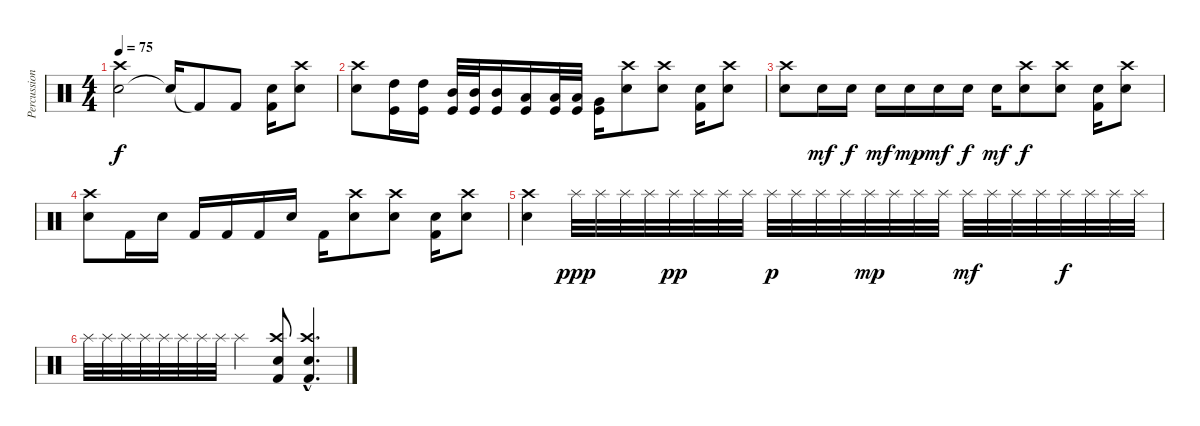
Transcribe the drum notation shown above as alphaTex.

\track ("Percussion" "Percussion") {instrument percussion}
\staff {score}
\articulation defaults
\ts (4 4)
\tempo 75
\clef neutral
\ks c
("Snare (hit) 2" "Crash high (hit)").2{dy f} "Snare (hit)"{t}.16 "Kick (hit) 2"{t}.8 "Kick (hit) 2".8 ("Snare (hit) 2" "Kick (hit) 2").16 ("Crash high (hit)" "Snare (hit) 2").8 |
("Crash high (hit)" "Snare (hit) 2").8 ("High Tom (hit)" "Kick (hit)").16 ("High Tom (hit)" "Kick (hit)").16 ("Mid Tom (hit)" "Kick (hit)").32 ("Mid Tom (hit)" "Kick (hit)").32 ("Mid Tom (hit)" "Kick (hit)").16 ("Low Tom (hit)" "Kick (hit)").16 ("Low Tom (hit)" "Kick (hit)").32 ("Low Tom (hit)" "Kick (hit)").32 ("Very Low Tom (hit)" "Kick (hit)").16 ("Crash high (hit)" "Snare (hit) 2").8 ("Crash high (hit)" "Snare (hit) 2").8 ("Kick (hit) 2" "Snare (hit) 2").16 ("Crash high (hit)" "Snare (hit) 2").8 |
("Crash high (hit)" "Snare (hit) 2").8 "Snare (hit) 2".16{dy mf} "Snare (hit) 2".16{dy f} "Snare (hit) 2".16{dy mf} "Snare (hit) 2".16{dy mp} "Snare (hit) 2".16{dy mf} "Snare (hit) 2".16{dy f} "Snare (hit) 2".16{dy mf} ("Crash high (hit)" "Snare (hit) 2").8{dy f} ("Crash high (hit)" "Snare (hit) 2").8 ("Kick (hit) 2" "Snare (hit) 2").16 ("Crash high (hit)" "Snare (hit) 2").8 |
("Crash high (hit)" "Snare (hit) 2").8 "Kick (hit) 2".16 "Snare (hit) 2".16 "Kick (hit) 2".16 "Kick (hit) 2".16 "Kick (hit) 2".16 "Snare (hit) 2".16 "Kick (hit) 2".16 ("Crash high (hit)" "Snare (hit) 2").8 ("Crash high (hit)" "Snare (hit) 2").8 ("Kick (hit) 2" "Snare (hit) 2").16 ("Crash high (hit)" "Snare (hit) 2").8 |
("Crash high (hit)" "Snare (hit) 2").4 "Splash (hit)".32{dy ppp} "Splash (hit)".32 "Splash (hit)".32 "Splash (hit)".32 "Splash (hit)".32{dy pp} "Splash (hit)".32 "Splash (hit)".32 "Splash (hit)".32 "Splash (hit)".32{dy p} "Splash (hit)".32 "Splash (hit)".32 "Splash (hit)".32 "Splash (hit)".32{dy mp} "Splash (hit)".32 "Splash (hit)".32 "Splash (hit)".32 "Splash (hit)".32{dy mf} "Splash (hit)".32 "Splash (hit)".32 "Splash (hit)".32 "Splash (hit)".32{dy f} "Splash (hit)".32 "Splash (hit)".32 "Splash (hit)".32 |
"Splash (hit)".32 "Splash (hit)".32 "Splash (hit)".32 "Splash (hit)".32 "Splash (hit)".32 "Splash (hit)".32 "Splash (hit)".32 "Splash (hit)".32 "Splash (hit)".4 ("Crash high (hit)" "Kick (hit) 2" "Snare (hit) 2").8 ("Crash high (hit)"{hac} "Kick (hit) 2"{hac} "Snare (hit) 2"{hac}).4{d}
